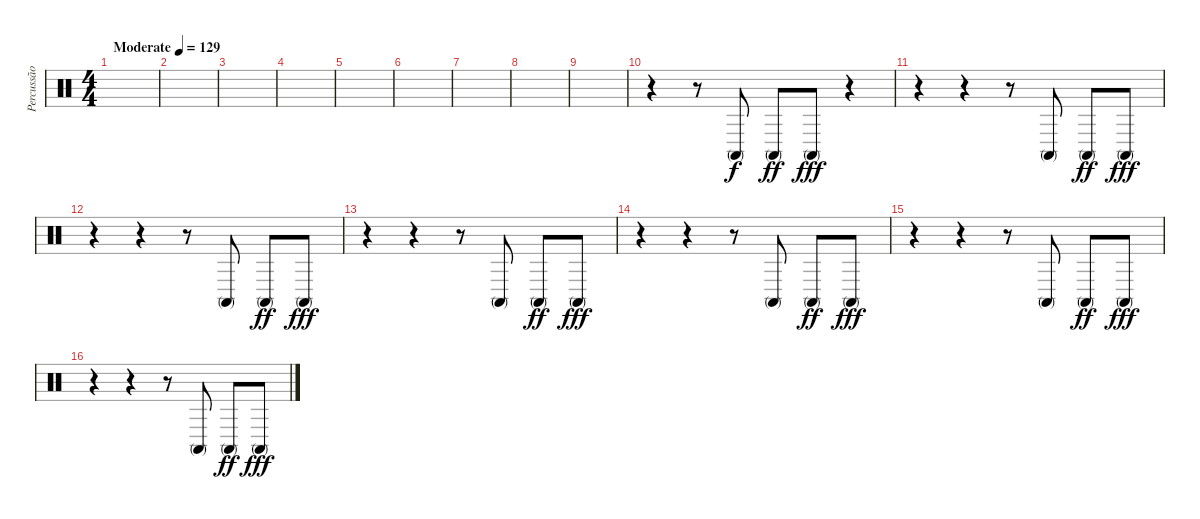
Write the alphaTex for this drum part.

\track ("Percussão" "Percussão") {instrument percussion}
\staff {score}
\articulation defaults
\ts (4 4)
\tempo (129 "Moderate")
\clef neutral
\ks c
|
|
|
|
|
|
|
|
|
r.4{volume 16} r.8 "Conga high (mute)".8 "Conga high (mute)".8{dy ff} "Conga high (mute)".8{dy fff} r.4 |
r.4 r.4 r.8 "Conga high (mute)".8 "Conga high (mute)".8{dy ff} "Conga high (mute)".8{dy fff} |
r.4 r.4 r.8 "Conga high (mute)".8 "Conga high (mute)".8{dy ff} "Conga high (mute)".8{dy fff} |
r.4 r.4 r.8 "Conga high (mute)".8 "Conga high (mute)".8{dy ff} "Conga high (mute)".8{dy fff} |
r.4 r.4 r.8 "Conga high (mute)".8 "Conga high (mute)".8{dy ff} "Conga high (mute)".8{dy fff} |
r.4 r.4 r.8 "Conga high (mute)".8 "Conga high (mute)".8{dy ff} "Conga high (mute)".8{dy fff} |
r.4 r.4 r.8 "Conga high (mute)".8 "Conga high (mute)".8{dy ff} "Conga high (mute)".8{dy fff}
